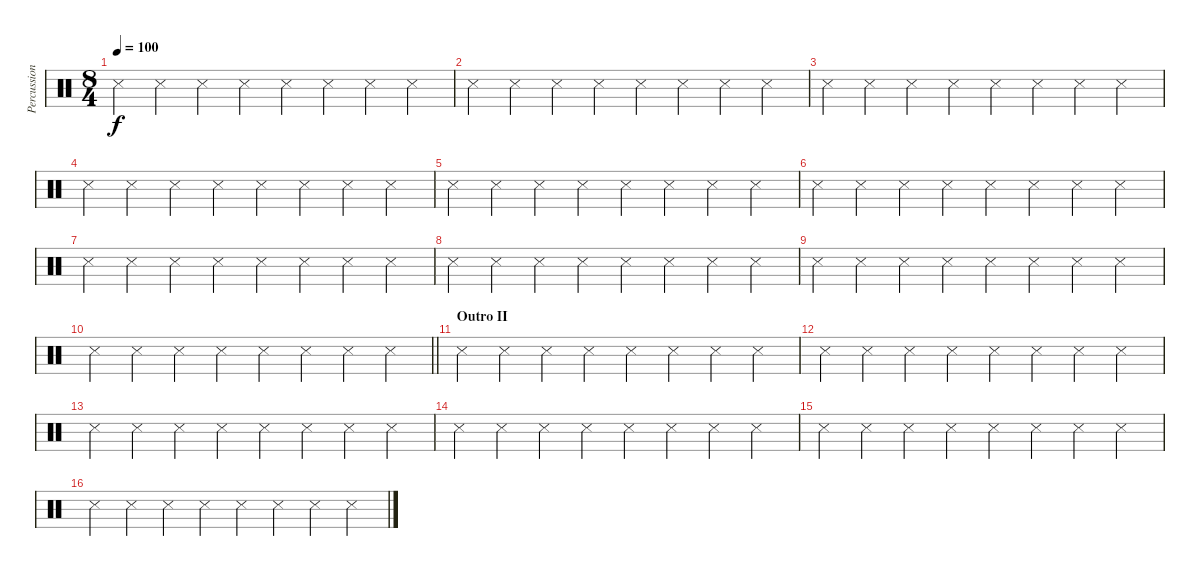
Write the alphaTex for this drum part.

\track ("Percussion" "Percussion") {mute instrument percussion}
\staff {score}
\articulation defaults
\ts (8 4)
\tempo 100
\clef neutral
\ks c "Metronome (hit)".4{dy f} "Snare (side stick) 3".4 "Snare (side stick) 3".4 "Snare (side stick) 3".4 "Metronome (hit)".4 "Snare (side stick) 3".4 "Snare (side stick) 3".4 "Snare (side stick) 3".4
|
"Metronome (hit)".4 "Snare (side stick) 3".4 "Snare (side stick) 3".4 "Snare (side stick) 3".4 "Metronome (hit)".4 "Snare (side stick) 3".4 "Snare (side stick) 3".4 "Snare (side stick) 3".4 |
"Metronome (hit)".4 "Snare (side stick) 3".4 "Snare (side stick) 3".4 "Snare (side stick) 3".4 "Metronome (hit)".4 "Snare (side stick) 3".4 "Snare (side stick) 3".4 "Snare (side stick) 3".4 |
"Metronome (hit)".4 "Snare (side stick) 3".4 "Snare (side stick) 3".4 "Snare (side stick) 3".4 "Metronome (hit)".4 "Snare (side stick) 3".4 "Snare (side stick) 3".4 "Snare (side stick) 3".4 |
"Metronome (hit)".4 "Snare (side stick) 3".4 "Snare (side stick) 3".4 "Snare (side stick) 3".4 "Metronome (hit)".4 "Snare (side stick) 3".4 "Snare (side stick) 3".4 "Snare (side stick) 3".4 |
"Metronome (hit)".4 "Snare (side stick) 3".4 "Snare (side stick) 3".4 "Snare (side stick) 3".4 "Metronome (hit)".4 "Snare (side stick) 3".4 "Snare (side stick) 3".4 "Snare (side stick) 3".4 |
"Metronome (hit)".4 "Snare (side stick) 3".4 "Snare (side stick) 3".4 "Snare (side stick) 3".4 "Metronome (hit)".4 "Snare (side stick) 3".4 "Snare (side stick) 3".4 "Snare (side stick) 3".4 |
"Metronome (hit)".4 "Snare (side stick) 3".4 "Snare (side stick) 3".4 "Snare (side stick) 3".4 "Metronome (hit)".4 "Snare (side stick) 3".4 "Snare (side stick) 3".4 "Snare (side stick) 3".4 |
"Metronome (hit)".4 "Snare (side stick) 3".4 "Snare (side stick) 3".4 "Snare (side stick) 3".4 "Metronome (hit)".4 "Snare (side stick) 3".4 "Snare (side stick) 3".4 "Snare (side stick) 3".4 |
\barLineRight lightlight "Metronome (hit)".4 "Snare (side stick) 3".4 "Snare (side stick) 3".4 "Snare (side stick) 3".4 "Metronome (hit)".4 "Snare (side stick) 3".4 "Snare (side stick) 3".4 "Snare (side stick) 3".4
|
\section ("" "Outro II")
"Metronome (hit)".4 "Snare (side stick) 3".4 "Snare (side stick) 3".4 "Snare (side stick) 3".4 "Metronome (hit)".4 "Snare (side stick) 3".4 "Snare (side stick) 3".4 "Snare (side stick) 3".4 |
"Metronome (hit)".4 "Snare (side stick) 3".4 "Snare (side stick) 3".4 "Snare (side stick) 3".4 "Metronome (hit)".4 "Snare (side stick) 3".4 "Snare (side stick) 3".4 "Snare (side stick) 3".4 |
"Metronome (hit)".4 "Snare (side stick) 3".4 "Snare (side stick) 3".4 "Snare (side stick) 3".4 "Metronome (hit)".4 "Snare (side stick) 3".4 "Snare (side stick) 3".4 "Snare (side stick) 3".4 |
"Metronome (hit)".4 "Snare (side stick) 3".4 "Snare (side stick) 3".4 "Snare (side stick) 3".4 "Metronome (hit)".4 "Snare (side stick) 3".4 "Snare (side stick) 3".4 "Snare (side stick) 3".4 |
"Metronome (hit)".4 "Snare (side stick) 3".4 "Snare (side stick) 3".4 "Snare (side stick) 3".4 "Metronome (hit)".4 "Snare (side stick) 3".4 "Snare (side stick) 3".4 "Snare (side stick) 3".4 |
"Metronome (hit)".4 "Snare (side stick) 3".4 "Snare (side stick) 3".4 "Snare (side stick) 3".4 "Metronome (hit)".4 "Snare (side stick) 3".4 "Snare (side stick) 3".4 "Snare (side stick) 3".4
